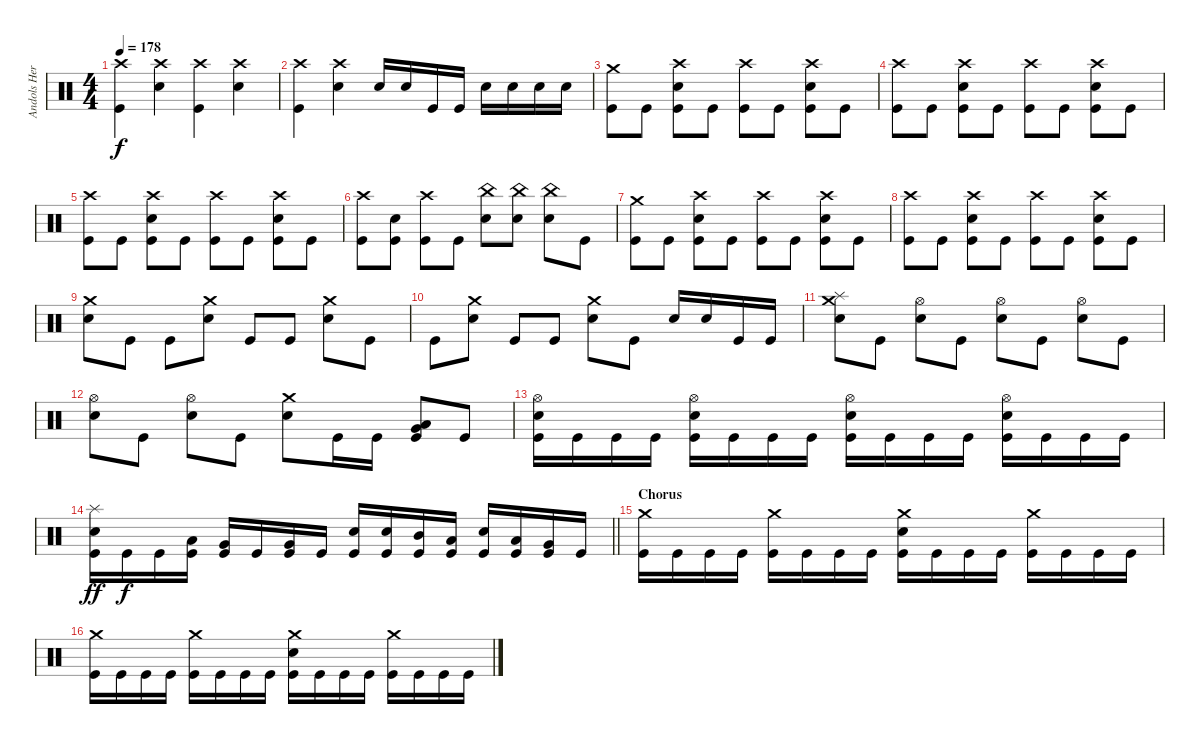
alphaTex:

\track ("Andols Herrick" "Andols Her") {instrument percussion}
\staff {score}
\articulation defaults
\ts (4 4)
\tempo 178
\clef neutral
\ks c
("Crash high (hit)" "Kick (hit)").4{dy f} ("Crash high (hit)" "Electric Snare (hit)").4 ("Crash high (hit)" "Kick (hit)").4 ("Crash high (hit)" "Electric Snare (hit)").4 |
("Crash high (hit)" "Kick (hit)").4 ("Crash high (hit)" "Electric Snare (hit)").4 "Electric Snare (hit)".16 "Electric Snare (hit)".16 "Kick (hit)".16 "Kick (hit)".16 "Electric Snare (hit)".16 "Electric Snare (hit)".16 "Electric Snare (hit)".16 "Electric Snare (hit)".16 |
("Crash medium (hit)" "Kick (hit)").8 "Kick (hit)".8 ("Crash high (hit)" "Electric Snare (hit)" "Kick (hit)").8 "Kick (hit)".8 ("Crash high (hit)" "Kick (hit)").8 "Kick (hit)".8 ("Crash high (hit)" "Electric Snare (hit)" "Kick (hit)").8 "Kick (hit)".8 |
("Crash high (hit)" "Kick (hit)").8 "Kick (hit)".8 ("Crash high (hit)" "Electric Snare (hit)" "Kick (hit)").8 "Kick (hit)".8 ("Crash high (hit)" "Kick (hit)").8 "Kick (hit)".8 ("Crash high (hit)" "Electric Snare (hit)" "Kick (hit)").8 "Kick (hit)".8 |
("Crash high (hit)" "Kick (hit)").8 "Kick (hit)".8 ("Crash high (hit)" "Electric Snare (hit)" "Kick (hit)").8 "Kick (hit)".8 ("Crash high (hit)" "Kick (hit)").8 "Kick (hit)".8 ("Crash high (hit)" "Electric Snare (hit)" "Kick (hit)").8 "Kick (hit)".8 |
("Crash high (hit)" "Kick (hit)").8 ("Electric Snare (hit)" "Kick (hit)").8 ("Crash high (hit)" "Kick (hit)").8 "Kick (hit)".8 ("China (hit)" "Electric Snare (hit)").8 ("China (hit)" "Electric Snare (hit)").8 ("China (hit)" "Electric Snare (hit)").8 "Kick (hit)".8 |
("Crash medium (hit)" "Kick (hit)").8 "Kick (hit)".8 ("Crash high (hit)" "Electric Snare (hit)" "Kick (hit)").8 "Kick (hit)".8 ("Crash high (hit)" "Kick (hit)").8 "Kick (hit)".8 ("Crash high (hit)" "Electric Snare (hit)" "Kick (hit)").8 "Kick (hit)".8 |
("Crash high (hit)" "Kick (hit)").8 "Kick (hit)".8 ("Crash high (hit)" "Electric Snare (hit)" "Kick (hit)").8 "Kick (hit)".8 ("Crash high (hit)" "Kick (hit)").8 "Kick (hit)".8 ("Crash high (hit)" "Electric Snare (hit)" "Kick (hit)").8 "Kick (hit)".8 |
("Crash medium (hit)" "Electric Snare (hit)").8 "Kick (hit)".8 "Kick (hit)".8 ("Crash medium (hit)" "Electric Snare (hit)").8 "Kick (hit)".8 "Kick (hit)".8 ("Crash medium (hit)" "Electric Snare (hit)").8 "Kick (hit)".8 |
"Kick (hit)".8 ("Crash medium (hit)" "Electric Snare (hit)").8 "Kick (hit)".8 "Kick (hit)".8 ("Crash medium (hit)" "Electric Snare (hit)").8 "Kick (hit)".8 "Electric Snare (hit)".16 "Electric Snare (hit)".16 "Kick (hit)".16 "Kick (hit)".16 |
("Crash medium (hit)" "Splash (hit)" "Electric Snare (hit)").8 "Kick (hit)".8 ("Hi-Hat (open)" "Electric Snare (hit)").8 "Kick (hit)".8 ("Hi-Hat (open)" "Electric Snare (hit)").8 "Kick (hit)".8 ("Hi-Hat (open)" "Electric Snare (hit)").8 "Kick (hit)".8 |
("Hi-Hat (open)" "Electric Snare (hit)").8 "Kick (hit)".8 ("Hi-Hat (open)" "Electric Snare (hit)").8 "Kick (hit)".8 ("Crash medium (hit)" "Electric Snare (hit)").8 "Kick (hit)".16 "Kick (hit)".16 ("Low Floor Tom (hit)" "Very Low Tom (hit)" "Kick (hit)").8 "Kick (hit)".8 |
("Hi-Hat (open)" "Electric Snare (hit)" "Kick (hit)").16 "Kick (hit)".16 "Kick (hit)".16 "Kick (hit)".16 ("Hi-Hat (open)" "Electric Snare (hit)" "Kick (hit)").16 "Kick (hit)".16 "Kick (hit)".16 "Kick (hit)".16 ("Hi-Hat (open)" "Electric Snare (hit)" "Kick (hit)").16 "Kick (hit)".16 "Kick (hit)".16 "Kick (hit)".16 ("Hi-Hat (open)" "Electric Snare (hit)" "Kick (hit)").16 "Kick (hit)".16 "Kick (hit)".16 "Kick (hit)".16 |
\barLineRight lightlight
("Splash (hit)" "Electric Snare (hit)" "Kick (hit)").16{dy ff} "Kick (hit)".16{dy f} "Kick (hit)".16 ("Low Tom (hit)" "Kick (hit)").16 ("Very Low Tom (hit)" "Kick (hit)").16 "Kick (hit)".16 ("Very Low Tom (hit)" "Kick (hit)").16 "Kick (hit)".16 ("Electric Snare (hit)" "Kick (hit)").16 ("Electric Snare (hit)" "Kick (hit)").16 ("Mid Tom (hit)" "Kick (hit)").16 ("Low Tom (hit)" "Kick (hit)").16 ("Electric Snare (hit)" "Kick (hit)").16 ("Low Tom (hit)" "Kick (hit)").16 ("Very Low Tom (hit)" "Kick (hit)").16 "Kick (hit)".16 |
\section ("" "Chorus")
("Crash medium (hit)" "Kick (hit)").16 "Kick (hit)".16 "Kick (hit)".16 "Kick (hit)".16 ("Crash medium (hit)" "Kick (hit)").16 "Kick (hit)".16 "Kick (hit)".16 "Kick (hit)".16 ("Crash medium (hit)" "Electric Snare (hit)" "Kick (hit)").16 "Kick (hit)".16 "Kick (hit)".16 "Kick (hit)".16 ("Crash medium (hit)" "Kick (hit)").16 "Kick (hit)".16 "Kick (hit)".16 "Kick (hit)".16 |
("Crash medium (hit)" "Kick (hit)").16 "Kick (hit)".16 "Kick (hit)".16 "Kick (hit)".16 ("Crash medium (hit)" "Kick (hit)").16 "Kick (hit)".16 "Kick (hit)".16 "Kick (hit)".16 ("Crash medium (hit)" "Electric Snare (hit)" "Kick (hit)").16 "Kick (hit)".16 "Kick (hit)".16 "Kick (hit)".16 ("Crash medium (hit)" "Kick (hit)").16 "Kick (hit)".16 "Kick (hit)".16 "Kick (hit)".16
